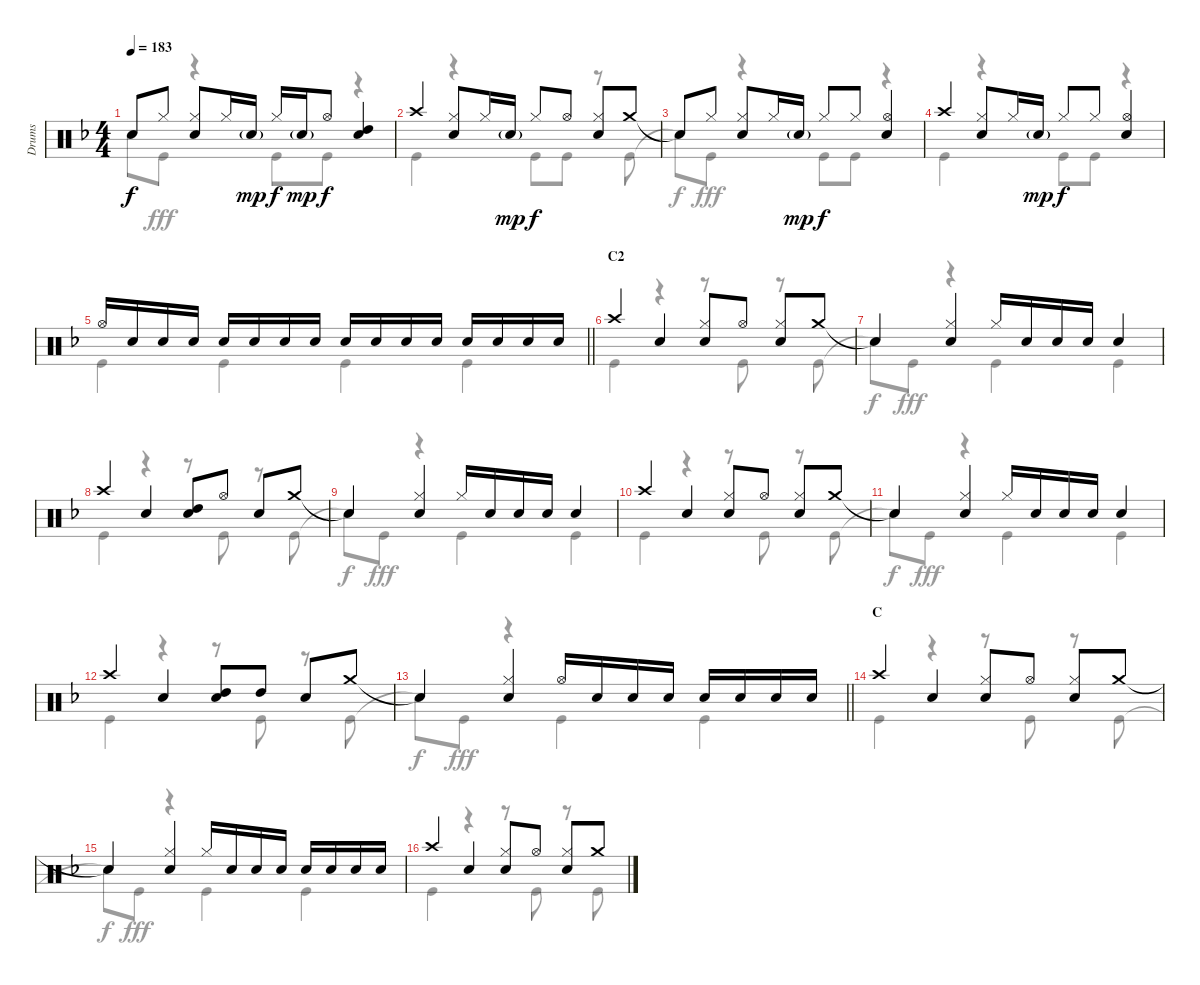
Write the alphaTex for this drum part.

\track ("Drums" "Drums") {instrument percussion}
\staff {score}
\articulation defaults
\voice
\ts (4 4)
\tempo 183
\clef neutral
\ks f "Snare (hit)"{t}.8{dy f} "Hi-Hat (closed)".8
("Hi-Hat (closed)" "Snare (hit) 2").8 "Hi-Hat (closed)".16 "Snare (hit) 2"{g}.16{dy mp} "Hi-Hat (closed)".16{dy f} "Snare (hit) 2"{g}.16{dy mp} "Hi-Hat (open)".8{dy f} ("High Tom (hit)" "Snare (hit) 2").4 |
"Crash high (hit)".4 ("Hi-Hat (closed)" "Snare (hit) 2").8 "Hi-Hat (closed)".16 "Snare (hit) 2"{g}.16{dy mp} "Hi-Hat (closed)".8{dy f} "Hi-Hat (open)".8 ("Hi-Hat (closed)" "Snare (hit) 2").8 "Crash medium (hit)".8 |
"Snare (hit)"{t}.8 "Hi-Hat (closed)".8 ("Hi-Hat (closed)" "Snare (hit) 2").8 "Hi-Hat (closed)".16 "Snare (hit) 2"{g}.16{dy mp} "Hi-Hat (closed)".8{dy f} "Hi-Hat (closed)".8 ("Hi-Hat (open)" "Snare (hit) 2").4 |
"Crash high (hit)".4 ("Hi-Hat (closed)" "Snare (hit) 2").8 "Hi-Hat (closed)".16 "Snare (hit) 2"{g}.16{dy mp} "Hi-Hat (closed)".8{dy f} "Hi-Hat (closed)".8 ("Hi-Hat (open)" "Snare (hit) 2").4 |
\barLineRight lightlight "Hi-Hat (open)".16 "Snare (hit) 2".16 "Snare (hit) 2".16 "Snare (hit) 2".16 "Snare (hit) 2".16 "Snare (hit) 2".16 "Snare (hit) 2".16 "Snare (hit) 2".16 "Snare (hit) 2".16 "Snare (hit) 2".16 "Snare (hit) 2".16 "Snare (hit) 2".16 "Snare (hit) 2".16 "Snare (hit) 2".16 "Snare (hit) 2".16 "Snare (hit) 2".16
|
\section ("" "C2")
"Crash high (hit)".4 "Snare (hit) 2".4 ("Hi-Hat (closed)" "Snare (hit) 2").8 "Hi-Hat (open)".8 ("Hi-Hat (closed)" "Snare (hit) 2").8 "Crash medium (hit)".8 |
"Snare (hit)"{t}.4 ("Hi-Hat (closed)" "Snare (hit) 2").4 "Hi-Hat (closed)".16 "Snare (hit) 2".16 "Snare (hit) 2".16 "Snare (hit) 2".16 "Snare (hit) 2".4 |
"Crash high (hit)".4 "Snare (hit) 2".4 ("High Tom (hit)" "Snare (hit) 2").8 "Hi-Hat (open)".8 "Snare (hit) 2".8 "Crash medium (hit)".8 |
"Snare (hit)"{t}.4 ("Hi-Hat (closed)" "Snare (hit) 2").4 "Hi-Hat (closed)".16 "Snare (hit) 2".16 "Snare (hit) 2".16 "Snare (hit) 2".16 "Snare (hit) 2".4 |
"Crash high (hit)".4 "Snare (hit) 2".4 ("Hi-Hat (closed)" "Snare (hit) 2").8 "Hi-Hat (open)".8 ("Hi-Hat (closed)" "Snare (hit) 2").8 "Crash medium (hit)".8 |
"Snare (hit)"{t}.4 ("Hi-Hat (closed)" "Snare (hit) 2").4 "Hi-Hat (closed)".16 "Snare (hit) 2".16 "Snare (hit) 2".16 "Snare (hit) 2".16 "Snare (hit) 2".4 |
"Crash high (hit)".4 "Snare (hit) 2".4 ("High Tom (hit)" "Snare (hit) 2").8 "High Tom (hit)".8 "Snare (hit) 2".8 "Crash medium (hit)".8 |
\barLineRight lightlight "Snare (hit)"{t}.4
("Hi-Hat (closed)" "Snare (hit) 2").4 "Hi-Hat (open)".16 "Snare (hit) 2".16 "Snare (hit) 2".16 "Snare (hit) 2".16 "Snare (hit) 2".16 "Snare (hit) 2".16 "Snare (hit) 2".16 "Snare (hit) 2".16 |
\section ("" "C")
"Crash high (hit)".4 "Snare (hit) 2".4 ("Hi-Hat (closed)" "Snare (hit) 2").8 "Hi-Hat (open)".8 ("Hi-Hat (closed)" "Snare (hit) 2").8 "Crash medium (hit)".8 |
"Snare (hit)"{t}.4 ("Hi-Hat (closed)" "Snare (hit) 2").4 "Hi-Hat (closed)".16 "Snare (hit) 2".16 "Snare (hit) 2".16 "Snare (hit) 2".16 "Snare (hit) 2".16 "Snare (hit) 2".16 "Snare (hit) 2".16 "Snare (hit) 2".16 |
"Crash high (hit)".4 "Snare (hit) 2".4 ("Hi-Hat (closed)" "Snare (hit) 2").8 "Hi-Hat (open)".8 ("Hi-Hat (closed)" "Snare (hit) 2").8 "Crash medium (hit)".8
\voice
\clef neutral
\ottava regular
\simile none
\ks f "Snare (hit)"{t}.8{dy f} "Kick (hit)".8{dy fff}
r.4 "Kick (hit)".8 "Kick (hit)".8 r.4 |
"Kick (hit)".4 r.4 "Kick (hit)".8 "Kick (hit)".8 r.8 "Kick (hit)".8 |
"Snare (hit)"{t}.8{dy f} "Kick (hit)".8{dy fff} r.4 "Kick (hit)".8 "Kick (hit)".8 r.4 |
"Kick (hit)".4 r.4 "Kick (hit)".8 "Kick (hit)".8 r.4 |
\barLineRight lightlight "Kick (hit)".4 "Kick (hit)".4 "Kick (hit)".4 "Kick (hit)".4
|
"Kick (hit)".4 r.4 r.8 "Kick (hit)".8 r.8 "Kick (hit)".8 |
"Snare (hit)"{t}.8{dy f} "Kick (hit)".8{dy fff} r.4 "Kick (hit)".4 "Kick (hit)".4 |
"Kick (hit)".4 r.4 r.8 "Kick (hit)".8 r.8 "Kick (hit)".8 |
"Snare (hit)"{t}.8{dy f} "Kick (hit)".8{dy fff} r.4 "Kick (hit)".4 "Kick (hit)".4 |
"Kick (hit)".4 r.4 r.8 "Kick (hit)".8 r.8 "Kick (hit)".8 |
"Snare (hit)"{t}.8{dy f} "Kick (hit)".8{dy fff} r.4 "Kick (hit)".4 "Kick (hit)".4 |
"Kick (hit)".4 r.4 r.8 "Kick (hit)".8 r.8 "Kick (hit)".8 |
\barLineRight lightlight "Snare (hit)"{t}.8{dy f} "Kick (hit)".8{dy fff}
r.4 "Kick (hit)".4 "Kick (hit)".4 |
"Kick (hit)".4 r.4 r.8 "Kick (hit)".8 r.8 "Kick (hit)".8 |
"Snare (hit)"{t}.8{dy f} "Kick (hit)".8{dy fff} r.4 "Kick (hit)".4 "Kick (hit)".4 |
"Kick (hit)".4 r.4 r.8 "Kick (hit)".8 r.8 "Kick (hit)".8
